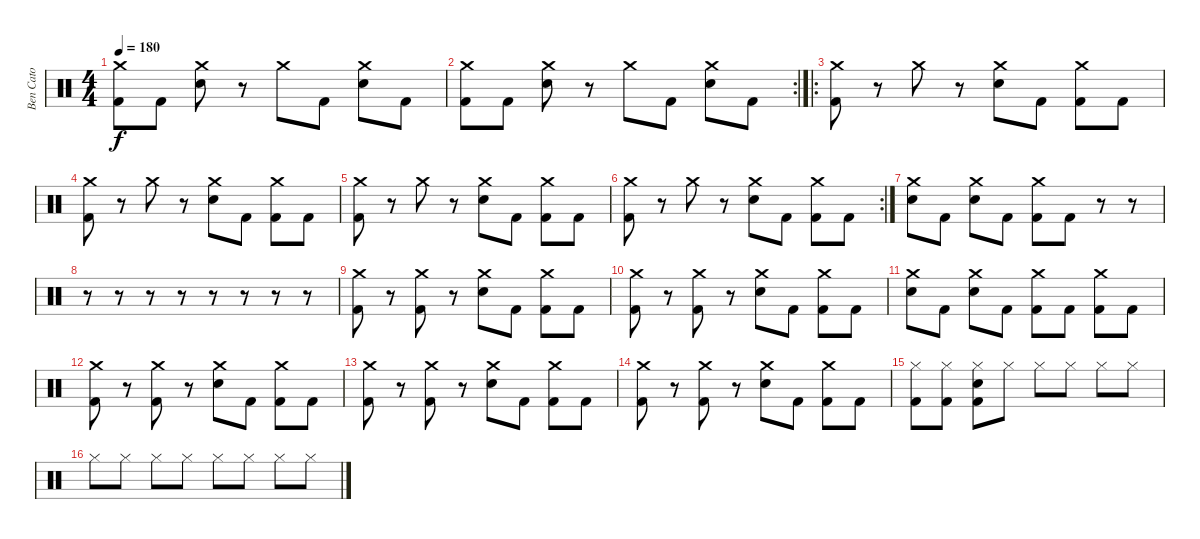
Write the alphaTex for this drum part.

\track ("Ben Cato" "Ben Cato") {instrument percussion}
\staff {score}
\articulation defaults
\ts (4 4)
\tempo 180
\clef neutral
\ks c
("Crash medium (hit)" "Kick (hit) 2").8{dy f} "Kick (hit) 2".8 ("Crash medium (hit)" "Electric Snare (hit)").8 r.8 "Crash medium (hit)".8 "Kick (hit) 2".8 ("Crash medium (hit)" "Electric Snare (hit)").8 "Kick (hit) 2".8 |
\rc 2
("Crash medium (hit)" "Kick (hit) 2").8 "Kick (hit) 2".8 ("Crash medium (hit)" "Electric Snare (hit)").8 r.8 "Crash medium (hit)".8 "Kick (hit) 2".8 ("Crash medium (hit)" "Electric Snare (hit)").8 "Kick (hit) 2".8 |
\ro
("Crash medium (hit)" "Kick (hit) 2").8 r.8 "Crash medium (hit)".8 r.8 ("Crash medium (hit)" "Electric Snare (hit)").8 "Kick (hit) 2".8 ("Crash medium (hit)" "Kick (hit) 2").8 "Kick (hit) 2".8 |
("Crash medium (hit)" "Kick (hit) 2").8 r.8 "Crash medium (hit)".8 r.8 ("Crash medium (hit)" "Electric Snare (hit)").8 "Kick (hit) 2".8 ("Crash medium (hit)" "Kick (hit) 2").8 "Kick (hit) 2".8 |
("Crash medium (hit)" "Kick (hit) 2").8 r.8 "Crash medium (hit)".8 r.8 ("Crash medium (hit)" "Electric Snare (hit)").8 "Kick (hit) 2".8 ("Crash medium (hit)" "Kick (hit) 2").8 "Kick (hit) 2".8 |
\rc 2
("Crash medium (hit)" "Kick (hit) 2").8 r.8 "Crash medium (hit)".8 r.8 ("Crash medium (hit)" "Electric Snare (hit)").8 "Kick (hit) 2".8 ("Crash medium (hit)" "Kick (hit) 2").8 "Kick (hit) 2".8 |
("Crash medium (hit)" "Electric Snare (hit)").8 "Kick (hit) 2".8 ("Crash medium (hit)" "Electric Snare (hit)").8 "Kick (hit) 2".8 ("Crash medium (hit)" "Kick (hit) 2").8 "Kick (hit) 2".8 r.8 r.8 |
r.8 r.8 r.8 r.8 r.8 r.8 r.8 r.8 |
("Crash medium (hit)" "Kick (hit) 2").8 r.8 ("Crash medium (hit)" "Kick (hit) 2").8 r.8 ("Crash medium (hit)" "Electric Snare (hit)").8 "Kick (hit) 2".8 ("Crash medium (hit)" "Kick (hit) 2").8 "Kick (hit) 2".8 |
("Crash medium (hit)" "Kick (hit) 2").8 r.8 ("Crash medium (hit)" "Kick (hit) 2").8 r.8 ("Crash medium (hit)" "Electric Snare (hit)").8 "Kick (hit) 2".8 ("Crash medium (hit)" "Kick (hit) 2").8 "Kick (hit) 2".8 |
("Crash medium (hit)" "Electric Snare (hit)").8 "Kick (hit) 2".8 ("Crash medium (hit)" "Electric Snare (hit)").8 "Kick (hit) 2".8 ("Crash medium (hit)" "Kick (hit) 2").8 "Kick (hit) 2".8 ("Crash medium (hit)" "Kick (hit) 2").8 "Kick (hit) 2".8 |
("Crash medium (hit)" "Kick (hit) 2").8 r.8 ("Crash medium (hit)" "Kick (hit) 2").8 r.8 ("Crash medium (hit)" "Electric Snare (hit)").8 "Kick (hit) 2".8 ("Crash medium (hit)" "Kick (hit) 2").8 "Kick (hit) 2".8 |
("Crash medium (hit)" "Kick (hit) 2").8 r.8 ("Crash medium (hit)" "Kick (hit) 2").8 r.8 ("Crash medium (hit)" "Electric Snare (hit)").8 "Kick (hit) 2".8 ("Crash medium (hit)" "Kick (hit) 2").8 "Kick (hit) 2".8 |
("Crash medium (hit)" "Kick (hit) 2").8 r.8 ("Crash medium (hit)" "Kick (hit) 2").8 r.8 ("Crash medium (hit)" "Electric Snare (hit)").8 "Kick (hit) 2".8 ("Crash medium (hit)" "Kick (hit) 2").8 "Kick (hit) 2".8 |
("Hi-Hat (closed)" "Kick (hit) 2").8 ("Hi-Hat (closed)" "Kick (hit) 2").8 ("Hi-Hat (closed)" "Electric Snare (hit)" "Kick (hit) 2").8 "Hi-Hat (closed)".8 "Hi-Hat (closed)".8 "Hi-Hat (closed)".8 "Hi-Hat (closed)".8 "Hi-Hat (closed)".8 |
"Hi-Hat (closed)".8 "Hi-Hat (closed)".8 "Hi-Hat (closed)".8 "Hi-Hat (closed)".8 "Hi-Hat (closed)".8 "Hi-Hat (closed)".8 "Hi-Hat (closed)".8 "Hi-Hat (closed)".8
